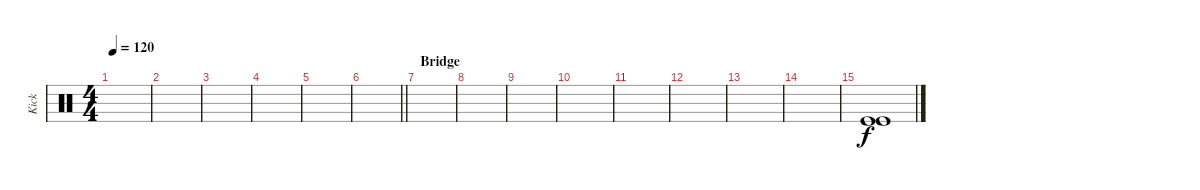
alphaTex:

\track ("Kick" "Kick") {instrument percussion}
\staff {score}
\articulation defaults
\ts (4 4)
\tempo 120
\clef neutral
\ks c
|
|
|
|
|
\barLineRight lightlight
|
\section ("" "Bridge")
|
|
|
|
|
|
|
|
("Kick (hit)" "Kick (hit)").1
